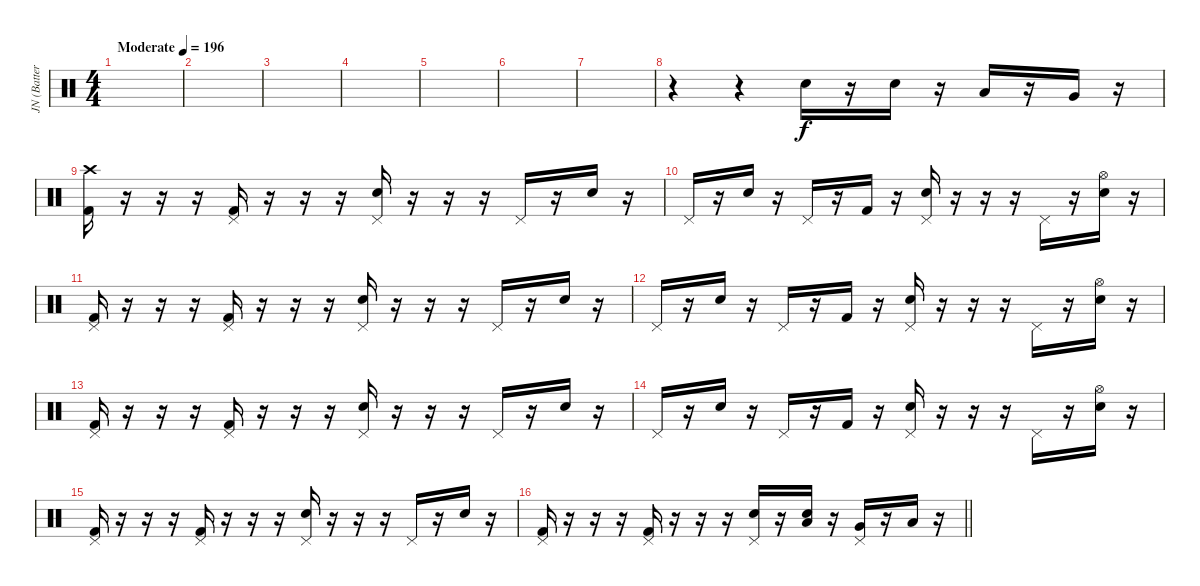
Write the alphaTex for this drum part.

\track ("JN (Batterie)" "JN (Batter") {instrument percussion}
\staff {score}
\articulation defaults
\ts (4 4)
\tempo (196 "Moderate")
\clef neutral
\ks c
|
|
|
|
|
|
|
r.4 r.4 "Electric Snare (hit)".16 r.16 "Electric Snare (hit)".16 r.16 "Low Tom (hit)".16 r.16 "Very Low Tom (hit)".16 r.16 |
("Crash high (hit)" "Kick (hit) 2").16 r.16 r.16 r.16 ("Pedal Hi-Hat (hit)" "Kick (hit) 2").16 r.16 r.16 r.16 ("Pedal Hi-Hat (hit)" "Electric Snare (hit)").16 r.16 r.16 r.16 "Pedal Hi-Hat (hit)".16 r.16 "Electric Snare (hit)".16 r.16 |
"Pedal Hi-Hat (hit)".16 r.16 "Electric Snare (hit)".16 r.16 "Pedal Hi-Hat (hit)".16 r.16 "Kick (hit) 2".16 r.16 ("Pedal Hi-Hat (hit)" "Electric Snare (hit)").16 r.16 r.16 r.16 "Pedal Hi-Hat (hit)".16 r.16 ("Hi-Hat (open)" "Electric Snare (hit)").16 r.16 |
("Pedal Hi-Hat (hit)" "Kick (hit) 2").16 r.16 r.16 r.16 ("Pedal Hi-Hat (hit)" "Kick (hit) 2").16 r.16 r.16 r.16 ("Pedal Hi-Hat (hit)" "Electric Snare (hit)").16 r.16 r.16 r.16 "Pedal Hi-Hat (hit)".16 r.16 "Electric Snare (hit)".16 r.16 |
"Pedal Hi-Hat (hit)".16 r.16 "Electric Snare (hit)".16 r.16 "Pedal Hi-Hat (hit)".16 r.16 "Kick (hit) 2".16 r.16 ("Pedal Hi-Hat (hit)" "Electric Snare (hit)").16 r.16 r.16 r.16 "Pedal Hi-Hat (hit)".16 r.16 ("Hi-Hat (open)" "Electric Snare (hit)").16 r.16 |
("Pedal Hi-Hat (hit)" "Kick (hit) 2").16 r.16 r.16 r.16 ("Pedal Hi-Hat (hit)" "Kick (hit) 2").16 r.16 r.16 r.16 ("Pedal Hi-Hat (hit)" "Electric Snare (hit)").16 r.16 r.16 r.16 "Pedal Hi-Hat (hit)".16 r.16 "Electric Snare (hit)".16 r.16 |
"Pedal Hi-Hat (hit)".16 r.16 "Electric Snare (hit)".16 r.16 "Pedal Hi-Hat (hit)".16 r.16 "Kick (hit) 2".16 r.16 ("Pedal Hi-Hat (hit)" "Electric Snare (hit)").16 r.16 r.16 r.16 "Pedal Hi-Hat (hit)".16 r.16 ("Hi-Hat (open)" "Electric Snare (hit)").16 r.16 |
("Pedal Hi-Hat (hit)" "Kick (hit) 2").16 r.16 r.16 r.16 ("Pedal Hi-Hat (hit)" "Kick (hit) 2").16 r.16 r.16 r.16 ("Pedal Hi-Hat (hit)" "Electric Snare (hit)").16 r.16 r.16 r.16 "Pedal Hi-Hat (hit)".16 r.16 "Electric Snare (hit)".16 r.16 |
\barLineRight lightlight
("Pedal Hi-Hat (hit)" "Kick (hit) 2").16 r.16 r.16 r.16 ("Pedal Hi-Hat (hit)" "Kick (hit) 2").16 r.16 r.16 r.16 ("Pedal Hi-Hat (hit)" "Electric Snare (hit)").16 r.16 ("Low Tom (hit)" "Electric Snare (hit)").16 r.16 ("Pedal Hi-Hat (hit)" "Very Low Tom (hit)").16 r.16 "Low Tom (hit)".16 r.16
